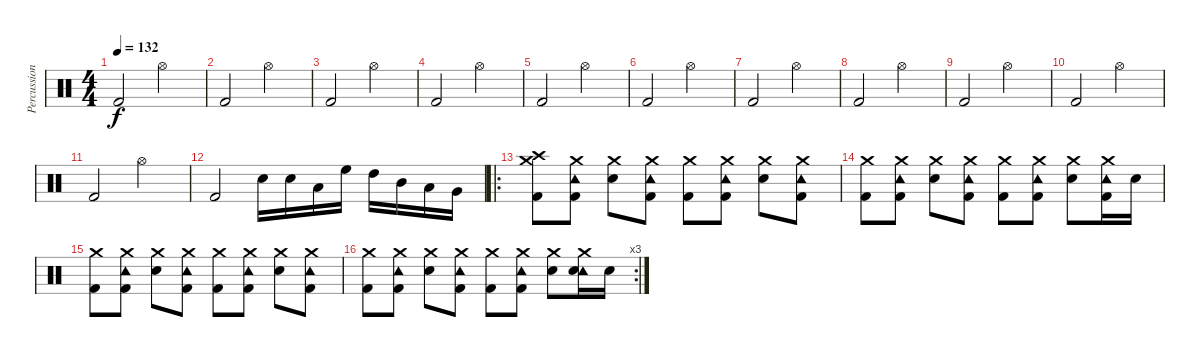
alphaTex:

\track ("Percussion" "Percussion") {instrument percussion}
\staff {score}
\articulation defaults
\ts (4 4)
\tempo 132
\clef neutral
\ks c "Kick (hit) 2".2{dy f} "Hi-Hat (open)".2
|
"Kick (hit) 2".2 "Hi-Hat (open)".2 |
"Kick (hit) 2".2 "Hi-Hat (open)".2 |
"Kick (hit) 2".2 "Hi-Hat (open)".2 |
"Kick (hit) 2".2 "Hi-Hat (open)".2 |
"Kick (hit) 2".2 "Hi-Hat (open)".2 |
"Kick (hit) 2".2 "Hi-Hat (open)".2 |
"Kick (hit) 2".2 "Hi-Hat (open)".2 |
"Kick (hit) 2".2 "Hi-Hat (open)".2 |
"Kick (hit) 2".2 "Hi-Hat (open)".2 |
"Kick (hit) 2".2 "Hi-Hat (open)".2 |
"Kick (hit) 2".2 "Electric Snare (hit)".16 "Electric Snare (hit)".16 "Low Floor Tom (hit)".16 "High Floor Tom (hit)".16 "High Tom (hit)".16 "Mid Tom (hit)".16 "Low Tom (hit)".16 "Very Low Tom (hit)".16 |
\ro
("Crash medium (hit)" "Crash high (hit)" "Kick (hit) 2").8 ("Crash medium (hit)" "Tambourine (hit)" "Kick (hit) 2").8 ("Crash medium (hit)" "Electric Snare (hit)").8 ("Crash medium (hit)" "Tambourine (hit)" "Kick (hit) 2").8 ("Crash medium (hit)" "Kick (hit) 2").8 ("Crash medium (hit)" "Tambourine (hit)" "Kick (hit) 2").8 ("Crash medium (hit)" "Electric Snare (hit)").8 ("Crash medium (hit)" "Tambourine (hit)" "Kick (hit) 2").8 |
("Crash medium (hit)" "Kick (hit) 2").8 ("Crash medium (hit)" "Tambourine (hit)" "Kick (hit) 2").8 ("Crash medium (hit)" "Electric Snare (hit)").8 ("Crash medium (hit)" "Tambourine (hit)" "Kick (hit) 2").8 ("Crash medium (hit)" "Kick (hit) 2").8 ("Crash medium (hit)" "Tambourine (hit)" "Kick (hit) 2").8 ("Crash medium (hit)" "Electric Snare (hit)").8 ("Crash medium (hit)" "Tambourine (hit)" "Kick (hit) 2").16 "Electric Snare (hit)".16 |
("Crash medium (hit)" "Kick (hit) 2").8 ("Crash medium (hit)" "Tambourine (hit)" "Kick (hit) 2").8 ("Crash medium (hit)" "Electric Snare (hit)").8 ("Crash medium (hit)" "Tambourine (hit)" "Kick (hit) 2").8 ("Crash medium (hit)" "Kick (hit) 2").8 ("Crash medium (hit)" "Tambourine (hit)" "Kick (hit) 2").8 ("Crash medium (hit)" "Electric Snare (hit)").8 ("Crash medium (hit)" "Tambourine (hit)" "Kick (hit) 2").8 |
\rc 3
("Crash medium (hit)" "Kick (hit) 2").8 ("Crash medium (hit)" "Tambourine (hit)" "Kick (hit) 2").8 ("Crash medium (hit)" "Electric Snare (hit)").8 ("Crash medium (hit)" "Tambourine (hit)" "Kick (hit) 2").8 ("Crash medium (hit)" "Kick (hit) 2").8 ("Crash medium (hit)" "Tambourine (hit)" "Kick (hit) 2").8 ("Crash medium (hit)" "Electric Snare (hit)").8 ("Crash medium (hit)" "Tambourine (hit)" "Electric Snare (hit)").16 "Electric Snare (hit)".16
